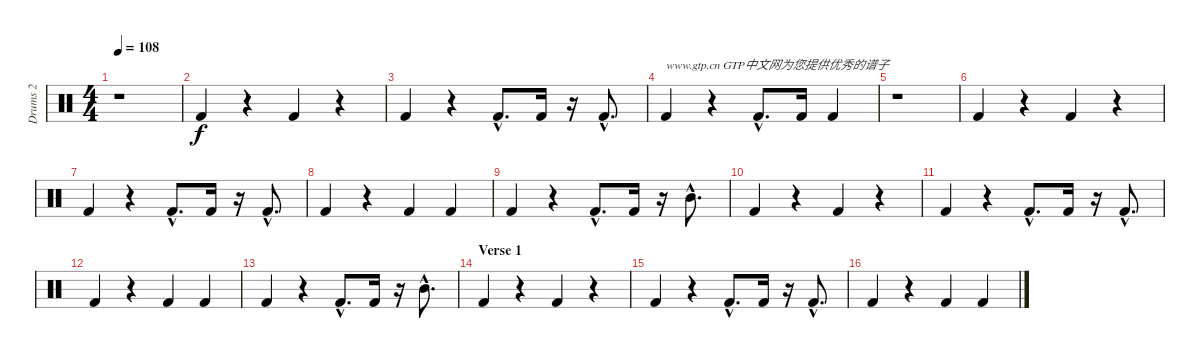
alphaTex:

\track ("Drums 2" "Drums 2") {instrument percussion}
\staff {score}
\articulation defaults
\ts (4 4)
\tempo 108
\clef neutral
\ks c
r.1{dy f} |
"Kick (hit) 2".4 r.4 "Kick (hit) 2".4 r.4 |
"Kick (hit) 2".4 r.4 "Kick (hit) 2"{hac}.8{d} "Kick (hit) 2".16 r.16 "Kick (hit) 2"{hac}.8{d} |
"Kick (hit) 2".4{txt "www.gtp.cn GTP中文网为您提供优秀的谱子"} r.4 "Kick (hit) 2"{hac}.8{d} "Kick (hit) 2".16 "Kick (hit) 2".4 |
r.1 |
"Kick (hit) 2".4 r.4 "Kick (hit) 2".4 r.4 |
"Kick (hit) 2".4 r.4 "Kick (hit) 2"{hac}.8{d} "Kick (hit) 2".16 r.16 "Kick (hit) 2"{hac}.8{d} |
"Kick (hit) 2".4 r.4 "Kick (hit) 2".4 "Kick (hit) 2".4 |
"Kick (hit) 2".4 r.4 "Kick (hit) 2"{hac}.8{d} "Kick (hit) 2".16 r.16 "Mid Tom (hit)"{hac}.8{d} |
"Kick (hit) 2".4 r.4 "Kick (hit) 2".4 r.4 |
"Kick (hit) 2".4 r.4 "Kick (hit) 2"{hac}.8{d} "Kick (hit) 2".16 r.16 "Kick (hit) 2"{hac}.8{d} |
"Kick (hit) 2".4 r.4 "Kick (hit) 2".4 "Kick (hit) 2".4 |
"Kick (hit) 2".4 r.4 "Kick (hit) 2"{hac}.8{d} "Kick (hit) 2".16 r.16 "Mid Tom (hit)"{hac}.8{d} |
\section ("" "Verse 1")
"Kick (hit) 2".4 r.4 "Kick (hit) 2".4 r.4 |
"Kick (hit) 2".4 r.4 "Kick (hit) 2"{hac}.8{d} "Kick (hit) 2".16 r.16 "Kick (hit) 2"{hac}.8{d} |
"Kick (hit) 2".4 r.4 "Kick (hit) 2".4 "Kick (hit) 2".4
